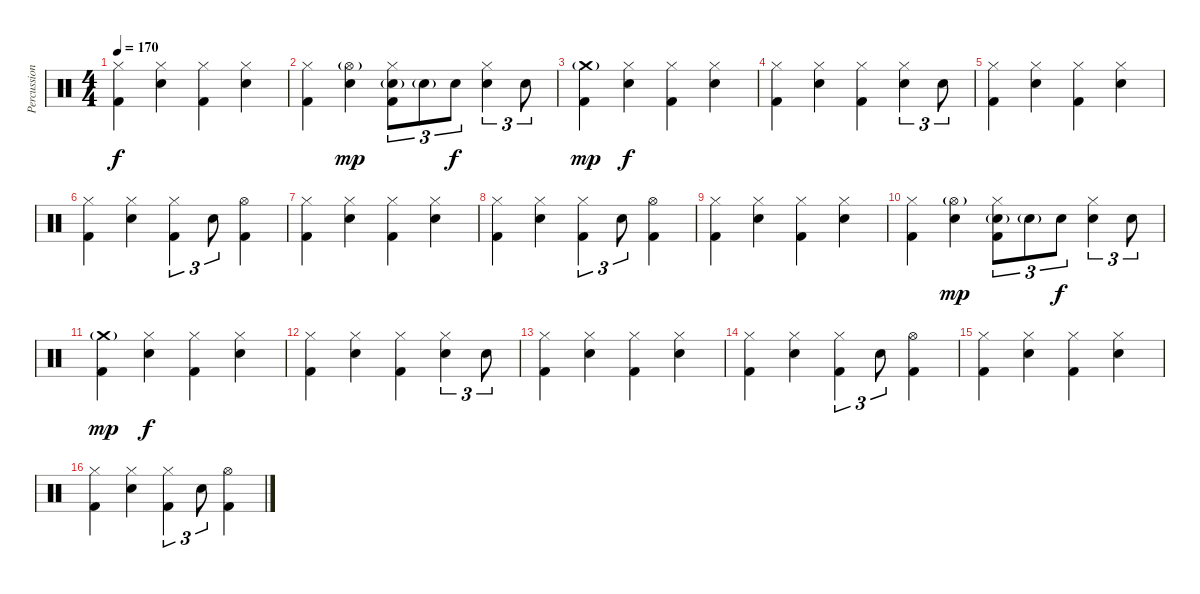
\track ("Percussion" "Percussion") {instrument percussion}
\staff {score}
\articulation defaults
\ts (4 4)
\tempo 170
\clef neutral
\ks c
("Hi-Hat (closed)" "Kick (hit) 2").4{dy f} ("Hi-Hat (closed)" "Snare (hit) 2").4 ("Hi-Hat (closed)" "Kick (hit) 2").4 ("Hi-Hat (closed)" "Snare (hit) 2").4 |
("Hi-Hat (closed)" "Kick (hit) 2").4 ("Hi-Hat (open)"{g} "Snare (hit) 2").4{dy mp} ("Hi-Hat (closed)" "Snare (hit) 2"{g} "Kick (hit) 2").8{tu (3 2)} "Snare (hit) 2"{g}.8{tu (3 2)} "Snare (hit) 2".8{tu (3 2) dy f} ("Hi-Hat (closed)" "Snare (hit) 2").4{tu (3 2)} "Snare (hit) 2".8{tu (3 2)} |
("Crash medium (hit)"{g} "Kick (hit) 2").4{dy mp} ("Hi-Hat (closed)" "Snare (hit) 2").4{dy f} ("Hi-Hat (closed)" "Kick (hit) 2").4 ("Hi-Hat (closed)" "Snare (hit) 2").4 |
("Hi-Hat (closed)" "Kick (hit) 2").4 ("Hi-Hat (closed)" "Snare (hit) 2").4 ("Hi-Hat (closed)" "Kick (hit) 2").4 ("Hi-Hat (closed)" "Snare (hit) 2").4{tu (3 2)} "Snare (hit) 2".8{tu (3 2)} |
("Hi-Hat (closed)" "Kick (hit) 2").4 ("Hi-Hat (closed)" "Snare (hit) 2").4 ("Hi-Hat (closed)" "Kick (hit) 2").4 ("Hi-Hat (closed)" "Snare (hit) 2").4 |
("Hi-Hat (closed)" "Kick (hit) 2").4 ("Hi-Hat (closed)" "Snare (hit) 2").4 ("Hi-Hat (closed)" "Kick (hit) 2").4{tu (3 2)} "Snare (hit) 2".8{tu (3 2)} ("Hi-Hat (open)" "Kick (hit) 2").4 |
("Hi-Hat (closed)" "Kick (hit) 2").4 ("Hi-Hat (closed)" "Snare (hit) 2").4 ("Hi-Hat (closed)" "Kick (hit) 2").4 ("Hi-Hat (closed)" "Snare (hit) 2").4 |
("Hi-Hat (closed)" "Kick (hit) 2").4 ("Hi-Hat (closed)" "Snare (hit) 2").4 ("Hi-Hat (closed)" "Kick (hit) 2").4{tu (3 2)} "Snare (hit) 2".8{tu (3 2)} ("Hi-Hat (open)" "Kick (hit) 2").4 |
("Hi-Hat (closed)" "Kick (hit) 2").4 ("Hi-Hat (closed)" "Snare (hit) 2").4 ("Hi-Hat (closed)" "Kick (hit) 2").4 ("Hi-Hat (closed)" "Snare (hit) 2").4 |
("Hi-Hat (closed)" "Kick (hit) 2").4 ("Hi-Hat (open)"{g} "Snare (hit) 2").4{dy mp} ("Hi-Hat (closed)" "Snare (hit) 2"{g} "Kick (hit) 2").8{tu (3 2)} "Snare (hit) 2"{g}.8{tu (3 2)} "Snare (hit) 2".8{tu (3 2) dy f} ("Hi-Hat (closed)" "Snare (hit) 2").4{tu (3 2)} "Snare (hit) 2".8{tu (3 2)} |
("Crash medium (hit)"{g} "Kick (hit) 2").4{dy mp} ("Hi-Hat (closed)" "Snare (hit) 2").4{dy f} ("Hi-Hat (closed)" "Kick (hit) 2").4 ("Hi-Hat (closed)" "Snare (hit) 2").4 |
("Hi-Hat (closed)" "Kick (hit) 2").4 ("Hi-Hat (closed)" "Snare (hit) 2").4 ("Hi-Hat (closed)" "Kick (hit) 2").4 ("Hi-Hat (closed)" "Snare (hit) 2").4{tu (3 2)} "Snare (hit) 2".8{tu (3 2)} |
("Hi-Hat (closed)" "Kick (hit) 2").4 ("Hi-Hat (closed)" "Snare (hit) 2").4 ("Hi-Hat (closed)" "Kick (hit) 2").4 ("Hi-Hat (closed)" "Snare (hit) 2").4 |
("Hi-Hat (closed)" "Kick (hit) 2").4 ("Hi-Hat (closed)" "Snare (hit) 2").4 ("Hi-Hat (closed)" "Kick (hit) 2").4{tu (3 2)} "Snare (hit) 2".8{tu (3 2)} ("Hi-Hat (open)" "Kick (hit) 2").4 |
("Hi-Hat (closed)" "Kick (hit) 2").4 ("Hi-Hat (closed)" "Snare (hit) 2").4 ("Hi-Hat (closed)" "Kick (hit) 2").4 ("Hi-Hat (closed)" "Snare (hit) 2").4 |
("Hi-Hat (closed)" "Kick (hit) 2").4 ("Hi-Hat (closed)" "Snare (hit) 2").4 ("Hi-Hat (closed)" "Kick (hit) 2").4{tu (3 2)} "Snare (hit) 2".8{tu (3 2)} ("Hi-Hat (open)" "Kick (hit) 2").4
